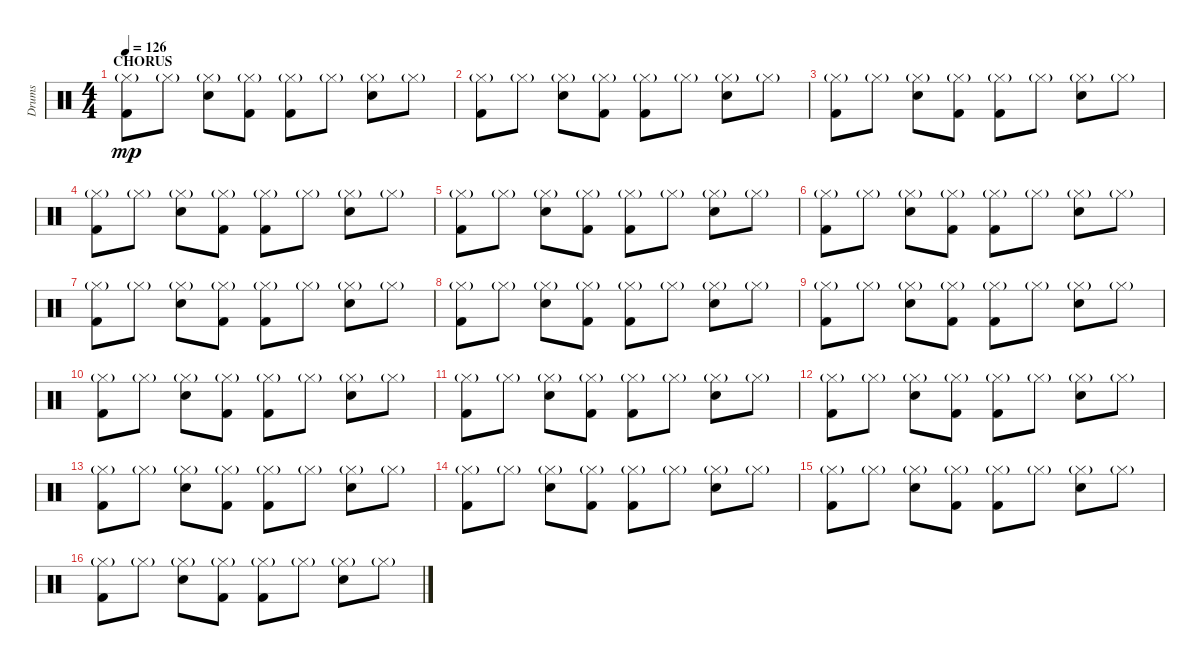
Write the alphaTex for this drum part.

\track ("Drums" "Drums") {instrument percussion}
\staff {score}
\articulation defaults
\ts (4 4)
\section ("" "CHORUS")
\tempo 126
\clef neutral
\ks c
("Hi-Hat (closed)"{g} "Kick (hit) 2").8{dy mp} "Hi-Hat (closed)"{g}.8 ("Hi-Hat (closed)"{g} "Snare (hit) 2").8 ("Hi-Hat (closed)"{g} "Kick (hit) 2").8 ("Hi-Hat (closed)"{g} "Kick (hit) 2").8 "Hi-Hat (closed)"{g}.8 ("Hi-Hat (closed)"{g} "Snare (hit) 2").8 "Hi-Hat (closed)"{g}.8 |
("Hi-Hat (closed)"{g} "Kick (hit) 2").8 "Hi-Hat (closed)"{g}.8 ("Hi-Hat (closed)"{g} "Snare (hit) 2").8 ("Hi-Hat (closed)"{g} "Kick (hit) 2").8 ("Hi-Hat (closed)"{g} "Kick (hit) 2").8 "Hi-Hat (closed)"{g}.8 ("Hi-Hat (closed)"{g} "Snare (hit) 2").8 "Hi-Hat (closed)"{g}.8 |
("Hi-Hat (closed)"{g} "Kick (hit) 2").8 "Hi-Hat (closed)"{g}.8 ("Hi-Hat (closed)"{g} "Snare (hit) 2").8 ("Hi-Hat (closed)"{g} "Kick (hit) 2").8 ("Hi-Hat (closed)"{g} "Kick (hit) 2").8 "Hi-Hat (closed)"{g}.8 ("Hi-Hat (closed)"{g} "Snare (hit) 2").8 "Hi-Hat (closed)"{g}.8 |
("Hi-Hat (closed)"{g} "Kick (hit) 2").8 "Hi-Hat (closed)"{g}.8 ("Hi-Hat (closed)"{g} "Snare (hit) 2").8 ("Hi-Hat (closed)"{g} "Kick (hit) 2").8 ("Hi-Hat (closed)"{g} "Kick (hit) 2").8 "Hi-Hat (closed)"{g}.8 ("Hi-Hat (closed)"{g} "Snare (hit) 2").8 "Hi-Hat (closed)"{g}.8 |
("Hi-Hat (closed)"{g} "Kick (hit) 2").8 "Hi-Hat (closed)"{g}.8 ("Hi-Hat (closed)"{g} "Snare (hit) 2").8 ("Hi-Hat (closed)"{g} "Kick (hit) 2").8 ("Hi-Hat (closed)"{g} "Kick (hit) 2").8 "Hi-Hat (closed)"{g}.8 ("Hi-Hat (closed)"{g} "Snare (hit) 2").8 "Hi-Hat (closed)"{g}.8 |
("Hi-Hat (closed)"{g} "Kick (hit) 2").8 "Hi-Hat (closed)"{g}.8 ("Hi-Hat (closed)"{g} "Snare (hit) 2").8 ("Hi-Hat (closed)"{g} "Kick (hit) 2").8 ("Hi-Hat (closed)"{g} "Kick (hit) 2").8 "Hi-Hat (closed)"{g}.8 ("Hi-Hat (closed)"{g} "Snare (hit) 2").8 "Hi-Hat (closed)"{g}.8 |
("Hi-Hat (closed)"{g} "Kick (hit) 2").8 "Hi-Hat (closed)"{g}.8 ("Hi-Hat (closed)"{g} "Snare (hit) 2").8 ("Hi-Hat (closed)"{g} "Kick (hit) 2").8 ("Hi-Hat (closed)"{g} "Kick (hit) 2").8 "Hi-Hat (closed)"{g}.8 ("Hi-Hat (closed)"{g} "Snare (hit) 2").8 "Hi-Hat (closed)"{g}.8 |
("Hi-Hat (closed)"{g} "Kick (hit) 2").8 "Hi-Hat (closed)"{g}.8 ("Hi-Hat (closed)"{g} "Snare (hit) 2").8 ("Hi-Hat (closed)"{g} "Kick (hit) 2").8 ("Hi-Hat (closed)"{g} "Kick (hit) 2").8 "Hi-Hat (closed)"{g}.8 ("Hi-Hat (closed)"{g} "Snare (hit) 2").8 "Hi-Hat (closed)"{g}.8 |
("Hi-Hat (closed)"{g} "Kick (hit) 2").8 "Hi-Hat (closed)"{g}.8 ("Hi-Hat (closed)"{g} "Snare (hit) 2").8 ("Hi-Hat (closed)"{g} "Kick (hit) 2").8 ("Hi-Hat (closed)"{g} "Kick (hit) 2").8 "Hi-Hat (closed)"{g}.8 ("Hi-Hat (closed)"{g} "Snare (hit) 2").8 "Hi-Hat (closed)"{g}.8 |
("Hi-Hat (closed)"{g} "Kick (hit) 2").8 "Hi-Hat (closed)"{g}.8 ("Hi-Hat (closed)"{g} "Snare (hit) 2").8 ("Hi-Hat (closed)"{g} "Kick (hit) 2").8 ("Hi-Hat (closed)"{g} "Kick (hit) 2").8 "Hi-Hat (closed)"{g}.8 ("Hi-Hat (closed)"{g} "Snare (hit) 2").8 "Hi-Hat (closed)"{g}.8 |
("Hi-Hat (closed)"{g} "Kick (hit) 2").8 "Hi-Hat (closed)"{g}.8 ("Hi-Hat (closed)"{g} "Snare (hit) 2").8 ("Hi-Hat (closed)"{g} "Kick (hit) 2").8 ("Hi-Hat (closed)"{g} "Kick (hit) 2").8 "Hi-Hat (closed)"{g}.8 ("Hi-Hat (closed)"{g} "Snare (hit) 2").8 "Hi-Hat (closed)"{g}.8 |
("Hi-Hat (closed)"{g} "Kick (hit) 2").8 "Hi-Hat (closed)"{g}.8 ("Hi-Hat (closed)"{g} "Snare (hit) 2").8 ("Hi-Hat (closed)"{g} "Kick (hit) 2").8 ("Hi-Hat (closed)"{g} "Kick (hit) 2").8 "Hi-Hat (closed)"{g}.8 ("Hi-Hat (closed)"{g} "Snare (hit) 2").8 "Hi-Hat (closed)"{g}.8 |
("Hi-Hat (closed)"{g} "Kick (hit) 2").8 "Hi-Hat (closed)"{g}.8 ("Hi-Hat (closed)"{g} "Snare (hit) 2").8 ("Hi-Hat (closed)"{g} "Kick (hit) 2").8 ("Hi-Hat (closed)"{g} "Kick (hit) 2").8 "Hi-Hat (closed)"{g}.8 ("Hi-Hat (closed)"{g} "Snare (hit) 2").8 "Hi-Hat (closed)"{g}.8 |
("Hi-Hat (closed)"{g} "Kick (hit) 2").8 "Hi-Hat (closed)"{g}.8 ("Hi-Hat (closed)"{g} "Snare (hit) 2").8 ("Hi-Hat (closed)"{g} "Kick (hit) 2").8 ("Hi-Hat (closed)"{g} "Kick (hit) 2").8 "Hi-Hat (closed)"{g}.8 ("Hi-Hat (closed)"{g} "Snare (hit) 2").8 "Hi-Hat (closed)"{g}.8 |
("Hi-Hat (closed)"{g} "Kick (hit) 2").8 "Hi-Hat (closed)"{g}.8 ("Hi-Hat (closed)"{g} "Snare (hit) 2").8 ("Hi-Hat (closed)"{g} "Kick (hit) 2").8 ("Hi-Hat (closed)"{g} "Kick (hit) 2").8 "Hi-Hat (closed)"{g}.8 ("Hi-Hat (closed)"{g} "Snare (hit) 2").8 "Hi-Hat (closed)"{g}.8 |
("Hi-Hat (closed)"{g} "Kick (hit) 2").8 "Hi-Hat (closed)"{g}.8 ("Hi-Hat (closed)"{g} "Snare (hit) 2").8 ("Hi-Hat (closed)"{g} "Kick (hit) 2").8 ("Hi-Hat (closed)"{g} "Kick (hit) 2").8 "Hi-Hat (closed)"{g}.8 ("Hi-Hat (closed)"{g} "Snare (hit) 2").8 "Hi-Hat (closed)"{g}.8
